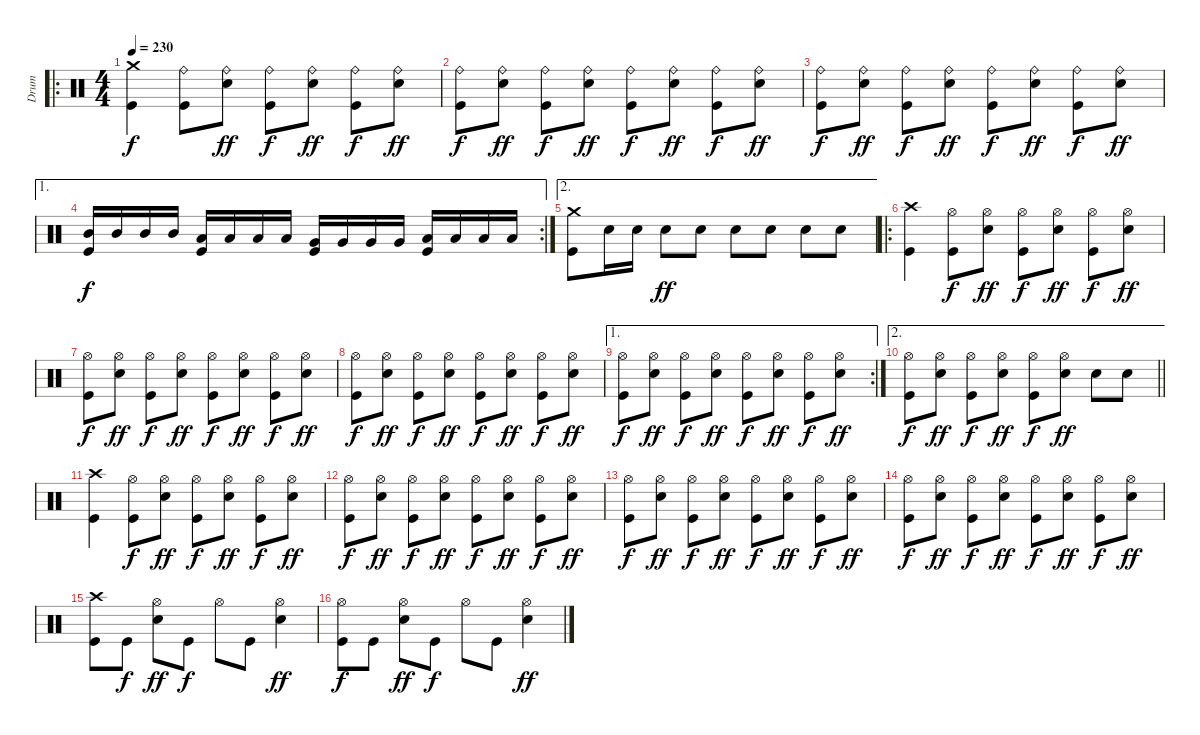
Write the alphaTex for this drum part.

\track ("Drum" "Drum") {instrument percussion}
\staff {score}
\articulation defaults
\ro
\ts (4 4)
\tempo 230
\clef neutral
\ks c
("Kick (hit)" "Crash medium (hit)").4{dy f} ("Kick (hit)" "Ride (bell)").8 ("Electric Snare (hit)" "Ride (bell)").8{dy ff} ("Kick (hit)" "Ride (bell)").8{dy f} ("Electric Snare (hit)" "Ride (bell)").8{dy ff} ("Kick (hit)" "Ride (bell)").8{dy f} ("Electric Snare (hit)" "Ride (bell)").8{dy ff} |
("Kick (hit)" "Ride (bell)").8{dy f} ("Electric Snare (hit)" "Ride (bell)").8{dy ff} ("Kick (hit)" "Ride (bell)").8{dy f} ("Electric Snare (hit)" "Ride (bell)").8{dy ff} ("Kick (hit)" "Ride (bell)").8{dy f} ("Electric Snare (hit)" "Ride (bell)").8{dy ff} ("Kick (hit)" "Ride (bell)").8{dy f} ("Electric Snare (hit)" "Ride (bell)").8{dy ff} |
("Kick (hit)" "Ride (bell)").8{dy f} ("Electric Snare (hit)" "Ride (bell)").8{dy ff} ("Kick (hit)" "Ride (bell)").8{dy f} ("Electric Snare (hit)" "Ride (bell)").8{dy ff} ("Kick (hit)" "Ride (bell)").8{dy f} ("Electric Snare (hit)" "Ride (bell)").8{dy ff} ("Kick (hit)" "Ride (bell)").8{dy f} ("Electric Snare (hit)" "Ride (bell)").8{dy ff} |
\ae 1
\rc 2
("Kick (hit)" "Mid Tom (hit)").16{dy f} "Mid Tom (hit)".16 "Mid Tom (hit)".16 "Mid Tom (hit)".16 ("Kick (hit)" "Low Tom (hit)").16 "Low Tom (hit)".16 "Low Tom (hit)".16 "Low Tom (hit)".16 ("Kick (hit)" "Very Low Tom (hit)").16 "Very Low Tom (hit)".16 "Very Low Tom (hit)".16 "Very Low Tom (hit)".16 ("Kick (hit)" "Low Floor Tom (hit)").16 "Low Floor Tom (hit)".16 "Low Floor Tom (hit)".16 "Low Floor Tom (hit)".16 |
\ae 2
("Kick (hit)" "Crash medium (hit)").8 "Electric Snare (hit)".16 "Electric Snare (hit)".16 "Electric Snare (hit)".8{dy ff} "Electric Snare (hit)".8 "Electric Snare (hit)".8 "Electric Snare (hit)".8 "Electric Snare (hit)".8 "Electric Snare (hit)".8 |
\ro
("Kick (hit)" "Crash high (hit)").4 ("Kick (hit)" "Hi-Hat (open)").8{dy f} ("Electric Snare (hit)" "Hi-Hat (open)").8{dy ff} ("Kick (hit)" "Hi-Hat (open)").8{dy f} ("Electric Snare (hit)" "Hi-Hat (open)").8{dy ff} ("Kick (hit)" "Hi-Hat (open)").8{dy f} ("Electric Snare (hit)" "Hi-Hat (open)").8{dy ff} |
("Kick (hit)" "Hi-Hat (open)").8{dy f} ("Electric Snare (hit)" "Hi-Hat (open)").8{dy ff} ("Kick (hit)" "Hi-Hat (open)").8{dy f} ("Electric Snare (hit)" "Hi-Hat (open)").8{dy ff} ("Kick (hit)" "Hi-Hat (open)").8{dy f} ("Electric Snare (hit)" "Hi-Hat (open)").8{dy ff} ("Kick (hit)" "Hi-Hat (open)").8{dy f} ("Electric Snare (hit)" "Hi-Hat (open)").8{dy ff} |
("Kick (hit)" "Hi-Hat (open)").8{dy f} ("Electric Snare (hit)" "Hi-Hat (open)").8{dy ff} ("Kick (hit)" "Hi-Hat (open)").8{dy f} ("Electric Snare (hit)" "Hi-Hat (open)").8{dy ff} ("Kick (hit)" "Hi-Hat (open)").8{dy f} ("Electric Snare (hit)" "Hi-Hat (open)").8{dy ff} ("Kick (hit)" "Hi-Hat (open)").8{dy f} ("Electric Snare (hit)" "Hi-Hat (open)").8{dy ff} |
\ae 1
\rc 2
("Kick (hit)" "Hi-Hat (open)").8{dy f} ("Electric Snare (hit)" "Hi-Hat (open)").8{dy ff} ("Kick (hit)" "Hi-Hat (open)").8{dy f} ("Electric Snare (hit)" "Hi-Hat (open)").8{dy ff} ("Kick (hit)" "Hi-Hat (open)").8{dy f} ("Electric Snare (hit)" "Hi-Hat (open)").8{dy ff} ("Kick (hit)" "Hi-Hat (open)").8{dy f} ("Electric Snare (hit)" "Hi-Hat (open)").8{dy ff} |
\ae 2
\barLineRight lightlight
("Kick (hit)" "Hi-Hat (open)").8{dy f} ("Electric Snare (hit)" "Hi-Hat (open)").8{dy ff} ("Kick (hit)" "Hi-Hat (open)").8{dy f} ("Electric Snare (hit)" "Hi-Hat (open)").8{dy ff} ("Kick (hit)" "Hi-Hat (open)").8{dy f} ("Electric Snare (hit)" "Hi-Hat (open)").8{dy ff} "Electric Snare (hit)".8 "Electric Snare (hit)".8 |
("Kick (hit)" "Crash high (hit)").4 ("Kick (hit)" "Hi-Hat (open)").8{dy f} ("Electric Snare (hit)" "Hi-Hat (open)").8{dy ff} ("Kick (hit)" "Hi-Hat (open)").8{dy f} ("Electric Snare (hit)" "Hi-Hat (open)").8{dy ff} ("Kick (hit)" "Hi-Hat (open)").8{dy f} ("Electric Snare (hit)" "Hi-Hat (open)").8{dy ff} |
("Kick (hit)" "Hi-Hat (open)").8{dy f} ("Electric Snare (hit)" "Hi-Hat (open)").8{dy ff} ("Kick (hit)" "Hi-Hat (open)").8{dy f} ("Electric Snare (hit)" "Hi-Hat (open)").8{dy ff} ("Kick (hit)" "Hi-Hat (open)").8{dy f} ("Electric Snare (hit)" "Hi-Hat (open)").8{dy ff} ("Kick (hit)" "Hi-Hat (open)").8{dy f} ("Electric Snare (hit)" "Hi-Hat (open)").8{dy ff} |
("Kick (hit)" "Hi-Hat (open)").8{dy f} ("Electric Snare (hit)" "Hi-Hat (open)").8{dy ff} ("Kick (hit)" "Hi-Hat (open)").8{dy f} ("Electric Snare (hit)" "Hi-Hat (open)").8{dy ff} ("Kick (hit)" "Hi-Hat (open)").8{dy f} ("Electric Snare (hit)" "Hi-Hat (open)").8{dy ff} ("Kick (hit)" "Hi-Hat (open)").8{dy f} ("Electric Snare (hit)" "Hi-Hat (open)").8{dy ff} |
("Kick (hit)" "Hi-Hat (open)").8{dy f} ("Electric Snare (hit)" "Hi-Hat (open)").8{dy ff} ("Kick (hit)" "Hi-Hat (open)").8{dy f} ("Electric Snare (hit)" "Hi-Hat (open)").8{dy ff} ("Kick (hit)" "Hi-Hat (open)").8{dy f} ("Electric Snare (hit)" "Hi-Hat (open)").8{dy ff} ("Kick (hit)" "Hi-Hat (open)").8{dy f} ("Electric Snare (hit)" "Hi-Hat (open)").8{dy ff} |
("Kick (hit)" "Crash high (hit)").8 "Kick (hit)".8{dy f} ("Electric Snare (hit)" "Hi-Hat (open)").8{dy ff} "Kick (hit)".8{dy f} "Hi-Hat (open)".8 "Kick (hit)".8 ("Electric Snare (hit)" "Hi-Hat (open)").4{dy ff} |
("Kick (hit)" "Hi-Hat (open)").8{dy f} "Kick (hit)".8 ("Electric Snare (hit)" "Hi-Hat (open)").8{dy ff} "Kick (hit)".8{dy f} "Hi-Hat (open)".8 "Kick (hit)".8 ("Electric Snare (hit)" "Hi-Hat (open)").4{dy ff}
